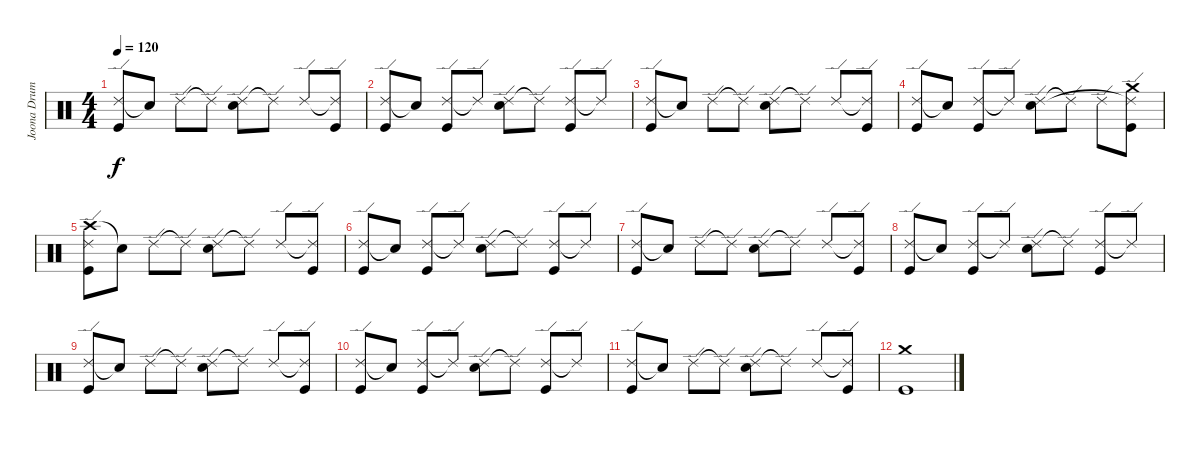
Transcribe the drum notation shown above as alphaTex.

\track ("Joona Drums" "Joona Drum") {instrument percussion}
\staff {score}
\articulation defaults
\ts (4 4)
\tempo 120
\clef neutral
\ks c
("Ride (edge) 2" "Kick (hit)").8{dy f} "Snare (hit)"{t}.8 "Ride (edge) 2".8 "Ride (edge) 2"{t}.8 ("Ride (edge) 2" "Snare (hit) 2").8 "Ride (edge) 2"{t}.8 "Ride (edge) 2".8 ("Ride (edge) 2"{t} "Kick (hit)").8 |
("Ride (edge) 2" "Kick (hit)").8 "Snare (hit)"{t}.8 ("Ride (edge) 2" "Kick (hit)").8 "Ride (edge) 2"{t}.8 ("Ride (edge) 2" "Snare (hit) 2").8 "Ride (edge) 2"{t}.8 ("Ride (edge) 2" "Kick (hit)").8 "Ride (edge) 2"{t}.8 |
("Ride (edge) 2" "Kick (hit)").8 "Snare (hit)"{t}.8 "Ride (edge) 2".8 "Ride (edge) 2"{t}.8 ("Ride (edge) 2" "Snare (hit) 2").8 "Ride (edge) 2"{t}.8 "Ride (edge) 2".8 ("Ride (edge) 2"{t} "Kick (hit)").8 |
("Ride (edge) 2" "Kick (hit)").8 "Snare (hit)"{t}.8 ("Ride (edge) 2" "Kick (hit)").8 "Ride (edge) 2"{t}.8 ("Ride (edge) 2" "Snare (hit) 2").8 "Ride (edge) 2"{t}.8 "Ride (edge) 2".8 ("Crash medium (hit)" "Ride (edge) 2"{t} "Kick (hit)").8 |
("Crash high (hit)" "Ride (edge) 2" "Kick (hit)").8 "Snare (hit)"{t}.8 "Ride (edge) 2".8 "Ride (edge) 2"{t}.8 ("Ride (edge) 2" "Snare (hit) 2").8 "Ride (edge) 2"{t}.8 "Ride (edge) 2".8 ("Ride (edge) 2"{t} "Kick (hit)").8 |
("Ride (edge) 2" "Kick (hit)").8 "Snare (hit)"{t}.8 ("Ride (edge) 2" "Kick (hit)").8 "Ride (edge) 2"{t}.8 ("Ride (edge) 2" "Snare (hit) 2").8 "Ride (edge) 2"{t}.8 ("Ride (edge) 2" "Kick (hit)").8 "Ride (edge) 2"{t}.8 |
("Ride (edge) 2" "Kick (hit)").8 "Snare (hit)"{t}.8 "Ride (edge) 2".8 "Ride (edge) 2"{t}.8 ("Ride (edge) 2" "Snare (hit) 2").8 "Ride (edge) 2"{t}.8 "Ride (edge) 2".8 ("Ride (edge) 2"{t} "Kick (hit)").8 |
("Ride (edge) 2" "Kick (hit)").8 "Snare (hit)"{t}.8 ("Ride (edge) 2" "Kick (hit)").8 "Ride (edge) 2"{t}.8 ("Ride (edge) 2" "Snare (hit) 2").8 "Ride (edge) 2"{t}.8 ("Ride (edge) 2" "Kick (hit)").8 "Ride (edge) 2"{t}.8 |
("Ride (edge) 2" "Kick (hit)").8 "Snare (hit)"{t}.8 "Ride (edge) 2".8 "Ride (edge) 2"{t}.8 ("Ride (edge) 2" "Snare (hit) 2").8 "Ride (edge) 2"{t}.8 "Ride (edge) 2".8 ("Ride (edge) 2"{t} "Kick (hit)").8 |
("Ride (edge) 2" "Kick (hit)").8 "Snare (hit)"{t}.8 ("Ride (edge) 2" "Kick (hit)").8 "Ride (edge) 2"{t}.8 ("Ride (edge) 2" "Snare (hit) 2").8 "Ride (edge) 2"{t}.8 ("Ride (edge) 2" "Kick (hit)").8 "Ride (edge) 2"{t}.8 |
("Ride (edge) 2" "Kick (hit)").8 "Snare (hit)"{t}.8 "Ride (edge) 2".8 "Ride (edge) 2"{t}.8 ("Ride (edge) 2" "Snare (hit) 2").8 "Ride (edge) 2"{t}.8 "Ride (edge) 2".8 ("Ride (edge) 2"{t} "Kick (hit)").8 |
("Crash medium (hit)" "Kick (hit)").1
